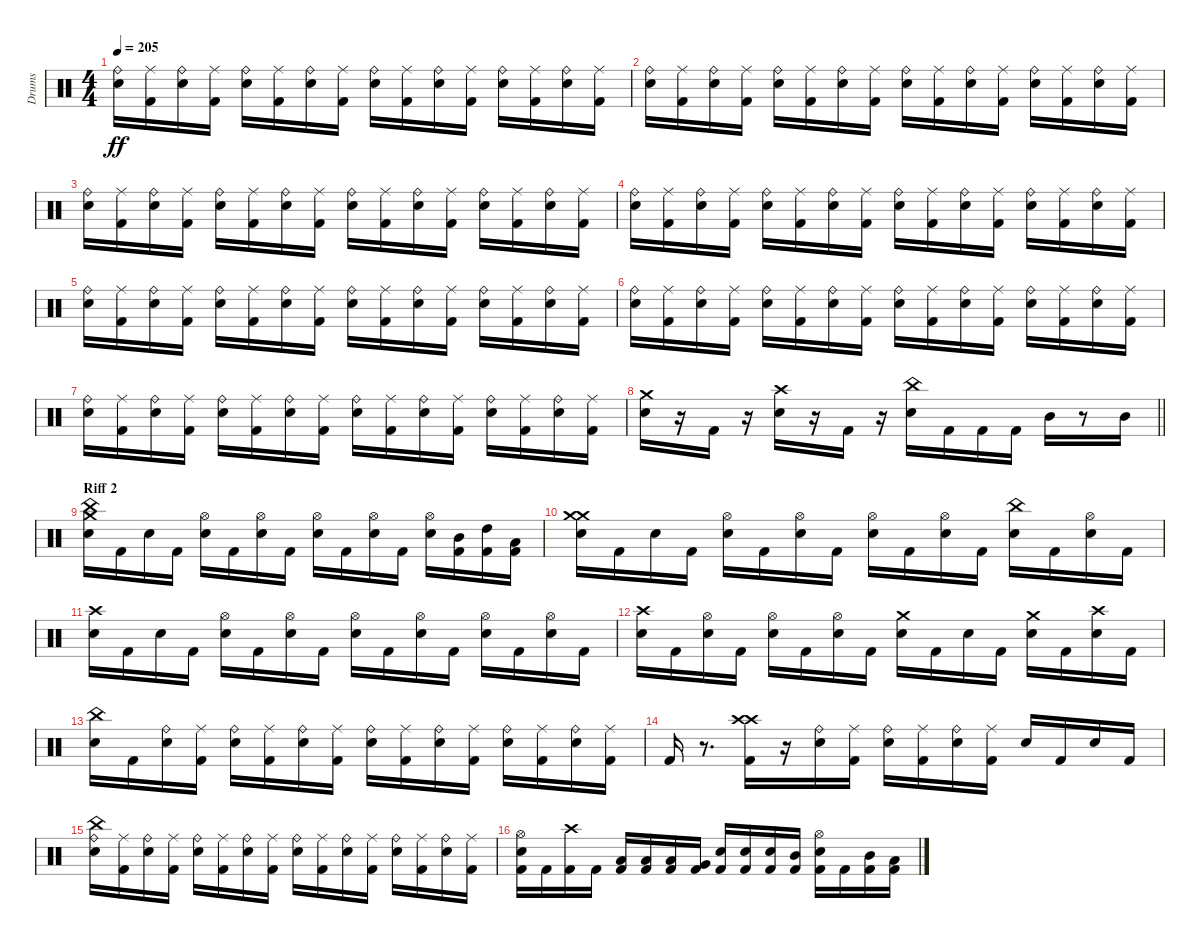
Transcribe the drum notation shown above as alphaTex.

\track ("Drums" "Drums") {instrument percussion}
\staff {score}
\articulation defaults
\ts (4 4)
\tempo 205
\clef neutral
\ks c
("Snare (hit) 2" "Ride (bell)").16{dy ff} ("Kick (hit) 2" "Ride (middle)").16 ("Snare (hit) 2" "Ride (bell)").16 ("Kick (hit) 2" "Ride (middle)").16 ("Snare (hit) 2" "Ride (bell)").16 ("Kick (hit) 2" "Ride (middle)").16 ("Snare (hit) 2" "Ride (bell)").16 ("Kick (hit) 2" "Ride (middle)").16 ("Snare (hit) 2" "Ride (bell)").16 ("Kick (hit) 2" "Ride (middle)").16 ("Snare (hit) 2" "Ride (bell)").16 ("Kick (hit) 2" "Ride (middle)").16 ("Snare (hit) 2" "Ride (bell)").16 ("Kick (hit) 2" "Ride (middle)").16 ("Snare (hit) 2" "Ride (bell)").16 ("Kick (hit) 2" "Ride (middle)").16 |
("Snare (hit) 2" "Ride (bell)").16 ("Kick (hit) 2" "Ride (middle)").16 ("Snare (hit) 2" "Ride (bell)").16 ("Kick (hit) 2" "Ride (middle)").16 ("Snare (hit) 2" "Ride (bell)").16 ("Kick (hit) 2" "Ride (middle)").16 ("Snare (hit) 2" "Ride (bell)").16 ("Kick (hit) 2" "Ride (middle)").16 ("Snare (hit) 2" "Ride (bell)").16 ("Kick (hit) 2" "Ride (middle)").16 ("Snare (hit) 2" "Ride (bell)").16 ("Kick (hit) 2" "Ride (middle)").16 ("Snare (hit) 2" "Ride (bell)").16 ("Kick (hit) 2" "Ride (middle)").16 ("Snare (hit) 2" "Ride (bell)").16 ("Kick (hit) 2" "Ride (middle)").16 |
("Snare (hit) 2" "Ride (bell)").16 ("Kick (hit) 2" "Ride (middle)").16 ("Snare (hit) 2" "Ride (bell)").16 ("Kick (hit) 2" "Ride (middle)").16 ("Snare (hit) 2" "Ride (bell)").16 ("Kick (hit) 2" "Ride (middle)").16 ("Snare (hit) 2" "Ride (bell)").16 ("Kick (hit) 2" "Ride (middle)").16 ("Snare (hit) 2" "Ride (bell)").16 ("Kick (hit) 2" "Ride (middle)").16 ("Snare (hit) 2" "Ride (bell)").16 ("Kick (hit) 2" "Ride (middle)").16 ("Snare (hit) 2" "Ride (bell)").16 ("Kick (hit) 2" "Ride (middle)").16 ("Snare (hit) 2" "Ride (bell)").16 ("Kick (hit) 2" "Ride (middle)").16 |
("Snare (hit) 2" "Ride (bell)").16 ("Kick (hit) 2" "Ride (middle)").16 ("Snare (hit) 2" "Ride (bell)").16 ("Kick (hit) 2" "Ride (middle)").16 ("Snare (hit) 2" "Ride (bell)").16 ("Kick (hit) 2" "Ride (middle)").16 ("Snare (hit) 2" "Ride (bell)").16 ("Kick (hit) 2" "Ride (middle)").16 ("Snare (hit) 2" "Ride (bell)").16 ("Kick (hit) 2" "Ride (middle)").16 ("Snare (hit) 2" "Ride (bell)").16 ("Kick (hit) 2" "Ride (middle)").16 ("Snare (hit) 2" "Ride (bell)").16 ("Kick (hit) 2" "Ride (middle)").16 ("Snare (hit) 2" "Ride (bell)").16 ("Kick (hit) 2" "Ride (middle)").16 |
("Snare (hit) 2" "Ride (bell)").16 ("Kick (hit) 2" "Ride (middle)").16 ("Snare (hit) 2" "Ride (bell)").16 ("Kick (hit) 2" "Ride (middle)").16 ("Snare (hit) 2" "Ride (bell)").16 ("Kick (hit) 2" "Ride (middle)").16 ("Snare (hit) 2" "Ride (bell)").16 ("Kick (hit) 2" "Ride (middle)").16 ("Snare (hit) 2" "Ride (bell)").16 ("Kick (hit) 2" "Ride (middle)").16 ("Snare (hit) 2" "Ride (bell)").16 ("Kick (hit) 2" "Ride (middle)").16 ("Snare (hit) 2" "Ride (bell)").16 ("Kick (hit) 2" "Ride (middle)").16 ("Snare (hit) 2" "Ride (bell)").16 ("Kick (hit) 2" "Ride (middle)").16 |
("Snare (hit) 2" "Ride (bell)").16 ("Kick (hit) 2" "Ride (middle)").16 ("Snare (hit) 2" "Ride (bell)").16 ("Kick (hit) 2" "Ride (middle)").16 ("Snare (hit) 2" "Ride (bell)").16 ("Kick (hit) 2" "Ride (middle)").16 ("Snare (hit) 2" "Ride (bell)").16 ("Kick (hit) 2" "Ride (middle)").16 ("Snare (hit) 2" "Ride (bell)").16 ("Kick (hit) 2" "Ride (middle)").16 ("Snare (hit) 2" "Ride (bell)").16 ("Kick (hit) 2" "Ride (middle)").16 ("Snare (hit) 2" "Ride (bell)").16 ("Kick (hit) 2" "Ride (middle)").16 ("Snare (hit) 2" "Ride (bell)").16 ("Kick (hit) 2" "Ride (middle)").16 |
("Snare (hit) 2" "Ride (bell)").16 ("Kick (hit) 2" "Ride (middle)").16 ("Snare (hit) 2" "Ride (bell)").16 ("Kick (hit) 2" "Ride (middle)").16 ("Snare (hit) 2" "Ride (bell)").16 ("Kick (hit) 2" "Ride (middle)").16 ("Snare (hit) 2" "Ride (bell)").16 ("Kick (hit) 2" "Ride (middle)").16 ("Snare (hit) 2" "Ride (bell)").16 ("Kick (hit) 2" "Ride (middle)").16 ("Snare (hit) 2" "Ride (bell)").16 ("Kick (hit) 2" "Ride (middle)").16 ("Snare (hit) 2" "Ride (bell)").16 ("Kick (hit) 2" "Ride (middle)").16 ("Snare (hit) 2" "Ride (bell)").16 ("Kick (hit) 2" "Ride (middle)").16 |
\barLineRight lightlight
("Crash medium (hit)" "Snare (hit) 2").16 r.16 "Kick (hit) 2".16 r.16 ("Crash high (hit)" "Snare (hit) 2").16 r.16 "Kick (hit) 2".16 r.16 ("China (hit)" "Snare (hit) 2").16 "Kick (hit) 2".16 "Kick (hit) 2".16 "Kick (hit) 2".16 "Mid Tom (hit)".16 r.8 "Mid Tom (hit)".16 |
\section ("" "Riff 2")
("China (hit)" "Crash medium (hit)" "Snare (hit) 2").16 "Kick (hit) 2".16 "Snare (hit) 2".16 "Kick (hit) 2".16 ("Hi-Hat (open)" "Snare (hit) 2").16 "Kick (hit) 2".16 ("Hi-Hat (open)" "Snare (hit) 2").16 "Kick (hit) 2".16 ("Hi-Hat (open)" "Snare (hit) 2").16 "Kick (hit) 2".16 ("Hi-Hat (open)" "Snare (hit) 2").16 "Kick (hit) 2".16 ("Hi-Hat (open)" "Snare (hit) 2").16 ("Kick (hit) 2" "Mid Tom (hit)").16 ("Kick (hit) 2" "High Tom (hit)").16 ("Kick (hit) 2" "Low Tom (hit)").16 |
("Crash medium (hit)" "Crash medium (hit)" "Snare (hit) 2").16 "Kick (hit) 2".16 "Snare (hit) 2".16 "Kick (hit) 2".16 ("Hi-Hat (open)" "Snare (hit) 2").16 "Kick (hit) 2".16 ("Hi-Hat (open)" "Snare (hit) 2").16 "Kick (hit) 2".16 ("Hi-Hat (open)" "Snare (hit) 2").16 "Kick (hit) 2".16 ("Hi-Hat (open)" "Snare (hit) 2").16 "Kick (hit) 2".16 ("China (hit)" "Snare (hit) 2").16 "Kick (hit) 2".16 ("Hi-Hat (open)" "Snare (hit) 2").16 "Kick (hit) 2".16 |
("Crash high (hit)" "Snare (hit) 2").16 "Kick (hit) 2".16 "Snare (hit) 2".16 "Kick (hit) 2".16 ("Hi-Hat (open)" "Snare (hit) 2").16 "Kick (hit) 2".16 ("Hi-Hat (open)" "Snare (hit) 2").16 "Kick (hit) 2".16 ("Hi-Hat (open)" "Snare (hit) 2").16 "Kick (hit) 2".16 ("Hi-Hat (open)" "Snare (hit) 2").16 "Kick (hit) 2".16 ("Hi-Hat (open)" "Snare (hit) 2").16 "Kick (hit) 2".16 ("Hi-Hat (open)" "Snare (hit) 2").16 "Kick (hit) 2".16 |
("Crash high (hit)" "Snare (hit) 2").16 "Kick (hit) 2".16 ("Hi-Hat (open)" "Snare (hit) 2").16 "Kick (hit) 2".16 ("Hi-Hat (open)" "Snare (hit) 2").16 "Kick (hit) 2".16 ("Hi-Hat (open)" "Snare (hit) 2").16 "Kick (hit) 2".16 ("Crash medium (hit)" "Snare (hit) 2").16 "Kick (hit) 2".16 "Snare (hit) 2".16 "Kick (hit) 2".16 ("Crash medium (hit)" "Snare (hit) 2").16 "Kick (hit) 2".16 ("Crash high (hit)" "Snare (hit) 2").16 "Kick (hit) 2".16 |
("Snare (hit) 2" "China (hit)").16 "Kick (hit) 2".16 ("Snare (hit) 2" "Ride (bell)").16 ("Kick (hit) 2" "Ride (middle)").16 ("Snare (hit) 2" "Ride (bell)").16 ("Kick (hit) 2" "Ride (middle)").16 ("Snare (hit) 2" "Ride (bell)").16 ("Kick (hit) 2" "Ride (middle)").16 ("Snare (hit) 2" "Ride (bell)").16 ("Kick (hit) 2" "Ride (middle)").16 ("Snare (hit) 2" "Ride (bell)").16 ("Kick (hit) 2" "Ride (middle)").16 ("Snare (hit) 2" "Ride (bell)").16 ("Kick (hit) 2" "Ride (middle)").16 ("Snare (hit) 2" "Ride (bell)").16 ("Kick (hit) 2" "Ride (middle)").16 |
"Kick (hit) 2".16 r.8{d} ("Crash high (hit)" "Crash high (hit)" "Kick (hit) 2").16 r.16 ("Snare (hit) 2" "Ride (bell)").16 ("Kick (hit) 2" "Ride (middle)").16 ("Snare (hit) 2" "Ride (bell)").16 ("Kick (hit) 2" "Ride (middle)").16 ("Snare (hit) 2" "Ride (bell)").16 ("Kick (hit) 2" "Ride (middle)").16 "Snare (hit) 2".16 "Kick (hit) 2".16 "Snare (hit) 2".16 "Kick (hit) 2".16 |
("Snare (hit) 2" "China (hit)" "Ride (bell)").16 ("Kick (hit) 2" "Ride (middle)").16 ("Snare (hit) 2" "Ride (bell)").16 ("Kick (hit) 2" "Ride (middle)").16 ("Snare (hit) 2" "Ride (bell)").16 ("Kick (hit) 2" "Ride (middle)").16 ("Snare (hit) 2" "Ride (bell)").16 ("Kick (hit) 2" "Ride (middle)").16 ("Snare (hit) 2" "Ride (bell)").16 ("Kick (hit) 2" "Ride (middle)").16 ("Snare (hit) 2" "Ride (bell)").16 ("Kick (hit) 2" "Ride (middle)").16 ("Snare (hit) 2" "Ride (bell)").16 ("Kick (hit) 2" "Ride (middle)").16 ("Snare (hit) 2" "Ride (bell)").16 ("Kick (hit) 2" "Ride (middle)").16 |
("Hi-Hat (open)" "Kick (hit) 2" "Snare (hit) 2").16 "Kick (hit) 2".16 ("Crash high (hit)" "Kick (hit) 2").16 "Kick (hit) 2".16 ("Kick (hit) 2" "Low Tom (hit)").16 ("Kick (hit) 2" "Low Tom (hit)").16 ("Kick (hit) 2" "Low Tom (hit)").16 ("Kick (hit) 2" "Very Low Tom (hit)").16 ("Kick (hit) 2" "Snare (hit) 2").16 ("Kick (hit) 2" "Snare (hit) 2").16 ("Kick (hit) 2" "Snare (hit) 2").16 ("Kick (hit) 2" "Mid Tom (hit)").16 ("Hi-Hat (open)" "Kick (hit) 2" "Snare (hit) 2").16 "Kick (hit) 2".16 ("Kick (hit) 2" "Mid Tom (hit)").16 ("Kick (hit) 2" "Low Tom (hit)").16
